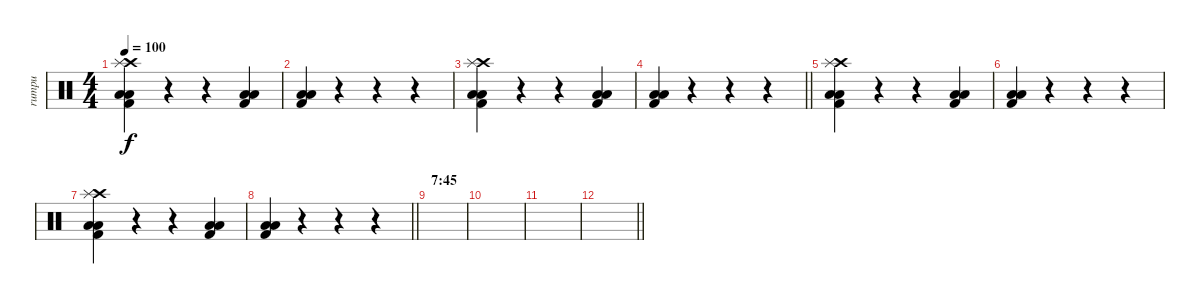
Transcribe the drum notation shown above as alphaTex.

\track ("rumpu" "rumpu") {instrument percussion}
\staff {score}
\articulation defaults
\ts (4 4)
\tempo 100
\clef neutral
\ks c
("Kick (hit) 2" "Low Tom (hit)" "Low Floor Tom (hit)" "Crash high (hit)" "Splash (hit)").4{dy f} r.4 r.4 ("Kick (hit) 2" "Low Tom (hit)" "Low Floor Tom (hit)").4 |
("Kick (hit) 2" "Low Tom (hit)" "Low Floor Tom (hit)").4 r.4 r.4 r.4 |
("Kick (hit) 2" "Low Tom (hit)" "Low Floor Tom (hit)" "Crash high (hit)" "Splash (hit)").4 r.4 r.4 ("Kick (hit) 2" "Low Tom (hit)" "Low Floor Tom (hit)").4 |
\barLineRight lightlight
("Kick (hit) 2" "Low Tom (hit)" "Low Floor Tom (hit)").4 r.4 r.4 r.4 |
("Kick (hit) 2" "Low Tom (hit)" "Low Floor Tom (hit)" "Crash high (hit)" "Splash (hit)").4 r.4 r.4 ("Kick (hit) 2" "Low Tom (hit)" "Low Floor Tom (hit)").4 |
("Kick (hit) 2" "Low Tom (hit)" "Low Floor Tom (hit)").4 r.4 r.4 r.4 |
("Kick (hit) 2" "Low Tom (hit)" "Low Floor Tom (hit)" "Crash high (hit)" "Splash (hit)").4 r.4 r.4 ("Kick (hit) 2" "Low Tom (hit)" "Low Floor Tom (hit)").4 |
\barLineRight lightlight
("Kick (hit) 2" "Low Tom (hit)" "Low Floor Tom (hit)").4 r.4 r.4 r.4 |
\section ("" "7:45")
|
|
|
\barLineRight lightlight
